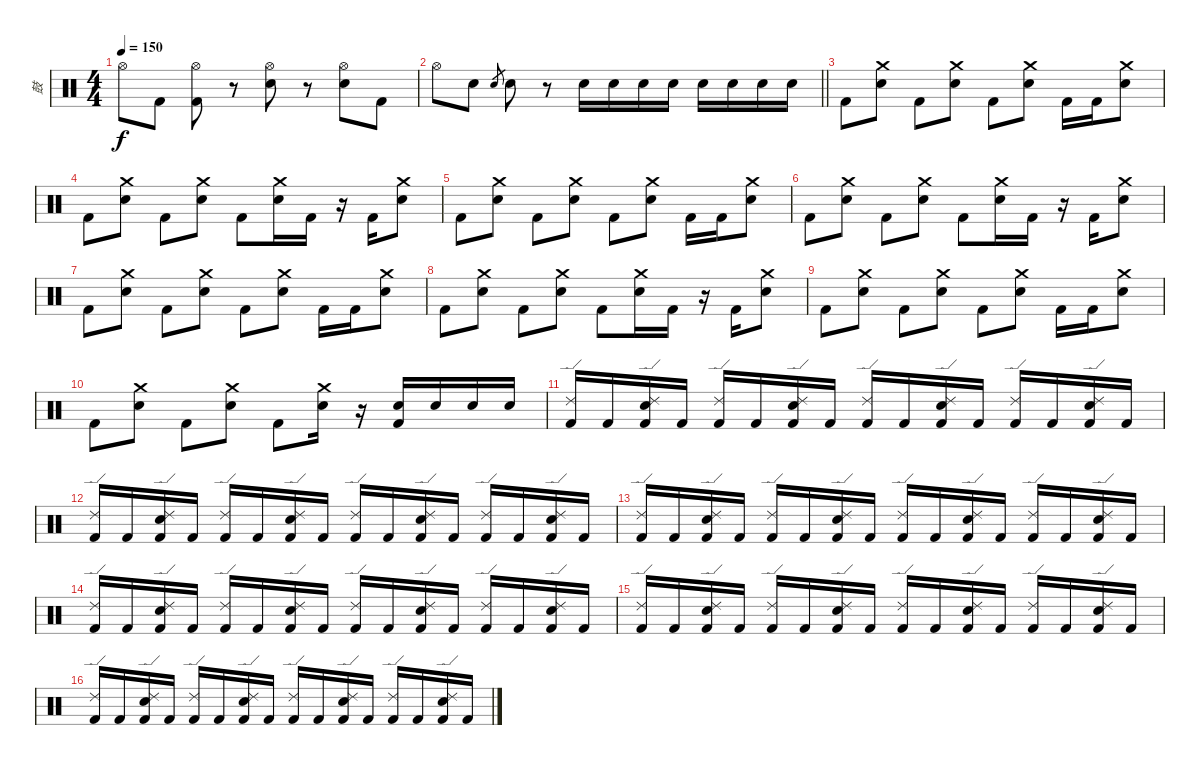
\track ("鼓" "鼓") {instrument percussion}
\staff {score}
\articulation defaults
\ts (4 4)
\tempo 150
\clef neutral
\ks c "Hi-Hat (open)".8{dy f} "Kick (hit) 2".8
("Hi-Hat (open)" "Kick (hit) 2").8 r.8 ("Hi-Hat (open)" "Electric Snare (hit)").8 r.8 ("Hi-Hat (open)" "Electric Snare (hit)").8 "Kick (hit) 2".8 |
\barLineRight lightlight "Hi-Hat (open)".8 "Electric Snare (hit)".8 "Electric Snare (hit)".8{gr} "Electric Snare (hit)".8
r.8 "Electric Snare (hit)".16 "Electric Snare (hit)".16 "Electric Snare (hit)".16 "Electric Snare (hit)".16 "Electric Snare (hit)".16 "Electric Snare (hit)".16 "Electric Snare (hit)".16 "Electric Snare (hit)".16 |
"Kick (hit) 2".8 ("Crash medium (hit)" "Electric Snare (hit)").8 "Kick (hit) 2".8 ("Crash medium (hit)" "Electric Snare (hit)").8 "Kick (hit) 2".8 ("Crash medium (hit)" "Electric Snare (hit)").8 "Kick (hit) 2".16 "Kick (hit) 2".16 ("Crash medium (hit)" "Electric Snare (hit)").8 |
"Kick (hit) 2".8 ("Crash medium (hit)" "Electric Snare (hit)").8 "Kick (hit) 2".8 ("Crash medium (hit)" "Electric Snare (hit)").8 "Kick (hit) 2".8 ("Crash medium (hit)" "Electric Snare (hit)").16 "Kick (hit) 2".16 r.16 "Kick (hit) 2".16 ("Crash medium (hit)" "Electric Snare (hit)").8 |
"Kick (hit) 2".8 ("Crash medium (hit)" "Electric Snare (hit)").8 "Kick (hit) 2".8 ("Crash medium (hit)" "Electric Snare (hit)").8 "Kick (hit) 2".8 ("Crash medium (hit)" "Electric Snare (hit)").8 "Kick (hit) 2".16 "Kick (hit) 2".16 ("Crash medium (hit)" "Electric Snare (hit)").8 |
"Kick (hit) 2".8 ("Crash medium (hit)" "Electric Snare (hit)").8 "Kick (hit) 2".8 ("Crash medium (hit)" "Electric Snare (hit)").8 "Kick (hit) 2".8 ("Crash medium (hit)" "Electric Snare (hit)").16 "Kick (hit) 2".16 r.16 "Kick (hit) 2".16 ("Crash medium (hit)" "Electric Snare (hit)").8 |
"Kick (hit) 2".8 ("Crash medium (hit)" "Electric Snare (hit)").8 "Kick (hit) 2".8 ("Crash medium (hit)" "Electric Snare (hit)").8 "Kick (hit) 2".8 ("Crash medium (hit)" "Electric Snare (hit)").8 "Kick (hit) 2".16 "Kick (hit) 2".16 ("Crash medium (hit)" "Electric Snare (hit)").8 |
"Kick (hit) 2".8 ("Crash medium (hit)" "Electric Snare (hit)").8 "Kick (hit) 2".8 ("Crash medium (hit)" "Electric Snare (hit)").8 "Kick (hit) 2".8 ("Crash medium (hit)" "Electric Snare (hit)").16 "Kick (hit) 2".16 r.16 "Kick (hit) 2".16 ("Crash medium (hit)" "Electric Snare (hit)").8 |
"Kick (hit) 2".8 ("Crash medium (hit)" "Electric Snare (hit)").8 "Kick (hit) 2".8 ("Crash medium (hit)" "Electric Snare (hit)").8 "Kick (hit) 2".8 ("Crash medium (hit)" "Electric Snare (hit)").8 "Kick (hit) 2".16 "Kick (hit) 2".16 ("Crash medium (hit)" "Electric Snare (hit)").8 |
"Kick (hit) 2".8 ("Crash medium (hit)" "Electric Snare (hit)").8 "Kick (hit) 2".8 ("Crash medium (hit)" "Electric Snare (hit)").8 "Kick (hit) 2".8 ("Crash medium (hit)" "Electric Snare (hit)").16 r.16 ("Electric Snare (hit)" "Kick (hit) 2").16 "Electric Snare (hit)".16 "Electric Snare (hit)".16 "Electric Snare (hit)".16 |
("Ride (edge) 2" "Kick (hit) 2").16 "Kick (hit) 2".16 ("Ride (edge) 2" "Kick (hit) 2" "Electric Snare (hit)").16 "Kick (hit) 2".16 ("Ride (edge) 2" "Kick (hit) 2").16 "Kick (hit) 2".16 ("Ride (edge) 2" "Kick (hit) 2" "Electric Snare (hit)").16 "Kick (hit) 2".16 ("Ride (edge) 2" "Kick (hit) 2").16 "Kick (hit) 2".16 ("Ride (edge) 2" "Kick (hit) 2" "Electric Snare (hit)").16 "Kick (hit) 2".16 ("Ride (edge) 2" "Kick (hit) 2").16 "Kick (hit) 2".16 ("Ride (edge) 2" "Kick (hit) 2" "Electric Snare (hit)").16 "Kick (hit) 2".16 |
("Ride (edge) 2" "Kick (hit) 2").16 "Kick (hit) 2".16 ("Ride (edge) 2" "Kick (hit) 2" "Electric Snare (hit)").16 "Kick (hit) 2".16 ("Ride (edge) 2" "Kick (hit) 2").16 "Kick (hit) 2".16 ("Ride (edge) 2" "Kick (hit) 2" "Electric Snare (hit)").16 "Kick (hit) 2".16 ("Ride (edge) 2" "Kick (hit) 2").16 "Kick (hit) 2".16 ("Ride (edge) 2" "Kick (hit) 2" "Electric Snare (hit)").16 "Kick (hit) 2".16 ("Ride (edge) 2" "Kick (hit) 2").16 "Kick (hit) 2".16 ("Ride (edge) 2" "Kick (hit) 2" "Electric Snare (hit)").16 "Kick (hit) 2".16 |
("Ride (edge) 2" "Kick (hit) 2").16 "Kick (hit) 2".16 ("Ride (edge) 2" "Kick (hit) 2" "Electric Snare (hit)").16 "Kick (hit) 2".16 ("Ride (edge) 2" "Kick (hit) 2").16 "Kick (hit) 2".16 ("Ride (edge) 2" "Kick (hit) 2" "Electric Snare (hit)").16 "Kick (hit) 2".16 ("Ride (edge) 2" "Kick (hit) 2").16 "Kick (hit) 2".16 ("Ride (edge) 2" "Kick (hit) 2" "Electric Snare (hit)").16 "Kick (hit) 2".16 ("Ride (edge) 2" "Kick (hit) 2").16 "Kick (hit) 2".16 ("Ride (edge) 2" "Kick (hit) 2" "Electric Snare (hit)").16 "Kick (hit) 2".16 |
("Ride (edge) 2" "Kick (hit) 2").16 "Kick (hit) 2".16 ("Ride (edge) 2" "Kick (hit) 2" "Electric Snare (hit)").16 "Kick (hit) 2".16 ("Ride (edge) 2" "Kick (hit) 2").16 "Kick (hit) 2".16 ("Ride (edge) 2" "Kick (hit) 2" "Electric Snare (hit)").16 "Kick (hit) 2".16 ("Ride (edge) 2" "Kick (hit) 2").16 "Kick (hit) 2".16 ("Ride (edge) 2" "Kick (hit) 2" "Electric Snare (hit)").16 "Kick (hit) 2".16 ("Ride (edge) 2" "Kick (hit) 2").16 "Kick (hit) 2".16 ("Ride (edge) 2" "Kick (hit) 2" "Electric Snare (hit)").16 "Kick (hit) 2".16 |
("Ride (edge) 2" "Kick (hit) 2").16 "Kick (hit) 2".16 ("Ride (edge) 2" "Kick (hit) 2" "Electric Snare (hit)").16 "Kick (hit) 2".16 ("Ride (edge) 2" "Kick (hit) 2").16 "Kick (hit) 2".16 ("Ride (edge) 2" "Kick (hit) 2" "Electric Snare (hit)").16 "Kick (hit) 2".16 ("Ride (edge) 2" "Kick (hit) 2").16 "Kick (hit) 2".16 ("Ride (edge) 2" "Kick (hit) 2" "Electric Snare (hit)").16 "Kick (hit) 2".16 ("Ride (edge) 2" "Kick (hit) 2").16 "Kick (hit) 2".16 ("Ride (edge) 2" "Kick (hit) 2" "Electric Snare (hit)").16 "Kick (hit) 2".16 |
("Ride (edge) 2" "Kick (hit) 2").16 "Kick (hit) 2".16 ("Ride (edge) 2" "Kick (hit) 2" "Electric Snare (hit)").16 "Kick (hit) 2".16 ("Ride (edge) 2" "Kick (hit) 2").16 "Kick (hit) 2".16 ("Ride (edge) 2" "Kick (hit) 2" "Electric Snare (hit)").16 "Kick (hit) 2".16 ("Ride (edge) 2" "Kick (hit) 2").16 "Kick (hit) 2".16 ("Ride (edge) 2" "Kick (hit) 2" "Electric Snare (hit)").16 "Kick (hit) 2".16 ("Ride (edge) 2" "Kick (hit) 2").16 "Kick (hit) 2".16 ("Ride (edge) 2" "Kick (hit) 2" "Electric Snare (hit)").16 "Kick (hit) 2".16
